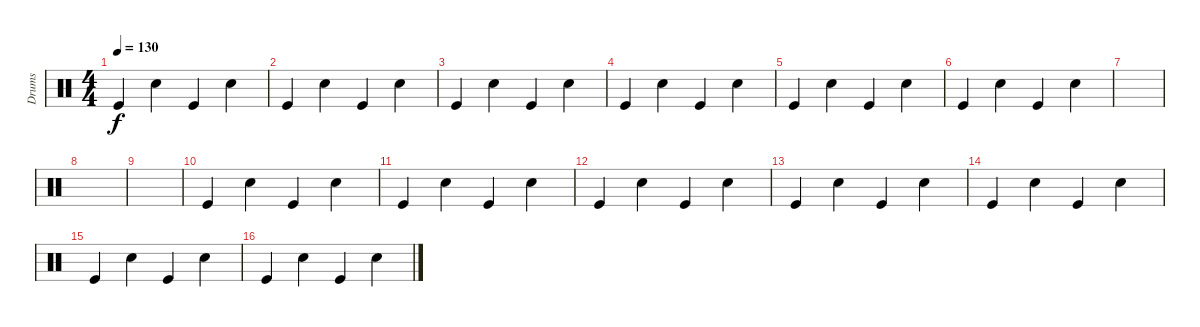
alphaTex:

\track ("Drums" "Drums") {instrument percussion}
\staff {score}
\articulation defaults
\ts (4 4)
\tempo 130
\clef neutral
\ks c "Kick (hit)".4{dy f} "Snare (hit) 2".4 "Kick (hit)".4 "Snare (hit) 2".4
|
"Kick (hit)".4 "Snare (hit) 2".4 "Kick (hit)".4 "Snare (hit) 2".4 |
"Kick (hit)".4 "Snare (hit) 2".4 "Kick (hit)".4 "Snare (hit) 2".4 |
"Kick (hit)".4 "Snare (hit) 2".4 "Kick (hit)".4 "Snare (hit) 2".4 |
"Kick (hit)".4 "Snare (hit) 2".4 "Kick (hit)".4 "Snare (hit) 2".4 |
"Kick (hit)".4 "Snare (hit) 2".4 "Kick (hit)".4 "Snare (hit) 2".4 |
|
|
|
"Kick (hit)".4 "Snare (hit) 2".4 "Kick (hit)".4 "Snare (hit) 2".4 |
"Kick (hit)".4 "Snare (hit) 2".4 "Kick (hit)".4 "Snare (hit) 2".4 |
"Kick (hit)".4 "Snare (hit) 2".4 "Kick (hit)".4 "Snare (hit) 2".4 |
"Kick (hit)".4 "Snare (hit) 2".4 "Kick (hit)".4 "Snare (hit) 2".4 |
"Kick (hit)".4 "Snare (hit) 2".4 "Kick (hit)".4 "Snare (hit) 2".4 |
"Kick (hit)".4 "Snare (hit) 2".4 "Kick (hit)".4 "Snare (hit) 2".4 |
"Kick (hit)".4 "Snare (hit) 2".4 "Kick (hit)".4 "Snare (hit) 2".4
